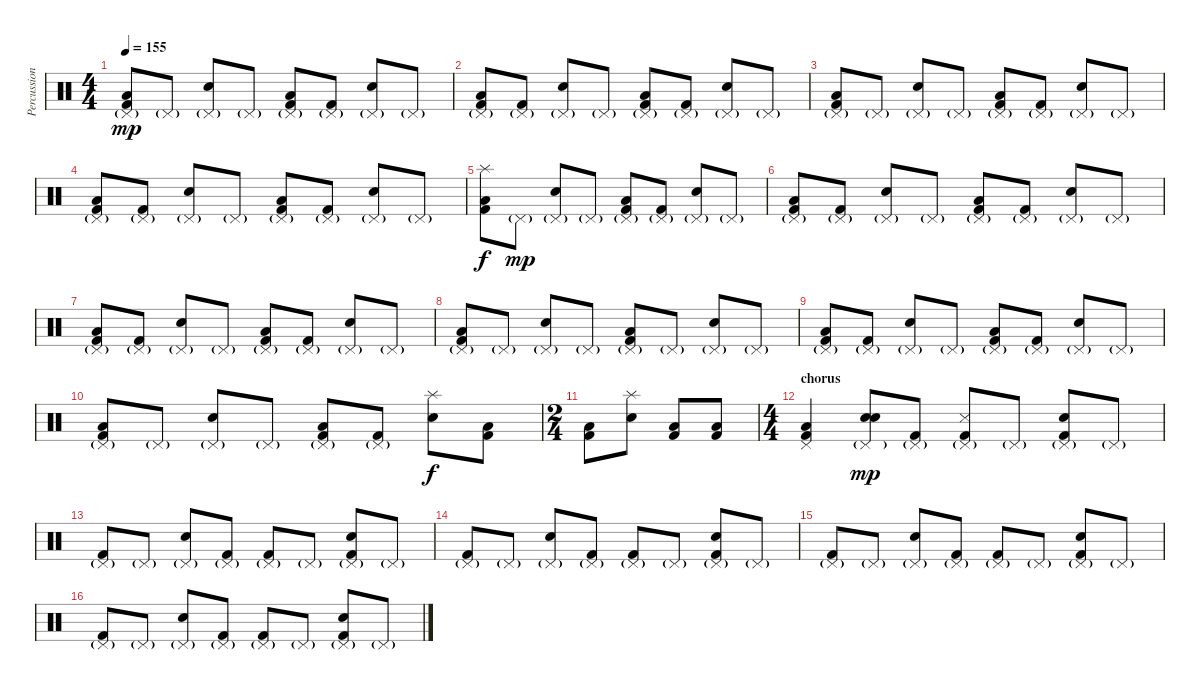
\track ("Percussions" "Percussion") {instrument percussion}
\staff {score}
\articulation defaults
\ts (4 4)
\tempo 155
\clef neutral
\ks c
("Pedal Hi-Hat (hit)"{g} "Low Floor Tom (hit)" "Kick (hit) 2").8{dy mp} "Pedal Hi-Hat (hit)"{g}.8 ("Pedal Hi-Hat (hit)"{g} "Snare (hit) 2").8 "Pedal Hi-Hat (hit)"{g}.8 ("Pedal Hi-Hat (hit)"{g} "Low Floor Tom (hit)" "Kick (hit) 2").8 ("Pedal Hi-Hat (hit)"{g} "Kick (hit) 2").8 ("Pedal Hi-Hat (hit)"{g} "Snare (hit) 2").8 "Pedal Hi-Hat (hit)"{g}.8 |
("Pedal Hi-Hat (hit)"{g} "Low Floor Tom (hit)" "Kick (hit) 2").8 ("Pedal Hi-Hat (hit)"{g} "Kick (hit) 2").8 ("Pedal Hi-Hat (hit)"{g} "Snare (hit) 2").8 "Pedal Hi-Hat (hit)"{g}.8 ("Pedal Hi-Hat (hit)"{g} "Low Floor Tom (hit)" "Kick (hit) 2").8 ("Pedal Hi-Hat (hit)"{g} "Kick (hit) 2").8 ("Pedal Hi-Hat (hit)"{g} "Snare (hit) 2").8 "Pedal Hi-Hat (hit)"{g}.8 |
("Pedal Hi-Hat (hit)"{g} "Low Floor Tom (hit)" "Kick (hit) 2").8 "Pedal Hi-Hat (hit)"{g}.8 ("Pedal Hi-Hat (hit)"{g} "Snare (hit) 2").8 "Pedal Hi-Hat (hit)"{g}.8 ("Pedal Hi-Hat (hit)"{g} "Low Floor Tom (hit)" "Kick (hit) 2").8 ("Pedal Hi-Hat (hit)"{g} "Kick (hit) 2").8 ("Pedal Hi-Hat (hit)"{g} "Snare (hit) 2").8 "Pedal Hi-Hat (hit)"{g}.8 |
("Pedal Hi-Hat (hit)"{g} "Low Floor Tom (hit)" "Kick (hit) 2").8 ("Pedal Hi-Hat (hit)"{g} "Kick (hit) 2").8 ("Pedal Hi-Hat (hit)"{g} "Snare (hit) 2").8 "Pedal Hi-Hat (hit)"{g}.8 ("Pedal Hi-Hat (hit)"{g} "Low Floor Tom (hit)" "Kick (hit) 2").8 ("Pedal Hi-Hat (hit)"{g} "Kick (hit) 2").8 ("Pedal Hi-Hat (hit)"{g} "Snare (hit) 2").8 "Pedal Hi-Hat (hit)"{g}.8 |
("Splash (hit)" "Low Floor Tom (hit)" "Kick (hit) 2").8{dy f} "Pedal Hi-Hat (hit)"{g}.8{dy mp} ("Pedal Hi-Hat (hit)"{g} "Snare (hit) 2").8 "Pedal Hi-Hat (hit)"{g}.8 ("Pedal Hi-Hat (hit)"{g} "Low Floor Tom (hit)" "Kick (hit) 2").8 ("Pedal Hi-Hat (hit)"{g} "Kick (hit) 2").8 ("Pedal Hi-Hat (hit)"{g} "Snare (hit) 2").8 "Pedal Hi-Hat (hit)"{g}.8 |
("Pedal Hi-Hat (hit)"{g} "Low Floor Tom (hit)" "Kick (hit) 2").8 ("Pedal Hi-Hat (hit)"{g} "Kick (hit) 2").8 ("Pedal Hi-Hat (hit)"{g} "Snare (hit) 2").8 "Pedal Hi-Hat (hit)"{g}.8 ("Pedal Hi-Hat (hit)"{g} "Low Floor Tom (hit)" "Kick (hit) 2").8 ("Pedal Hi-Hat (hit)"{g} "Kick (hit) 2").8 ("Pedal Hi-Hat (hit)"{g} "Snare (hit) 2").8 "Pedal Hi-Hat (hit)"{g}.8 |
("Pedal Hi-Hat (hit)"{g} "Low Floor Tom (hit)" "Kick (hit) 2").8 ("Pedal Hi-Hat (hit)"{g} "Kick (hit) 2").8 ("Pedal Hi-Hat (hit)"{g} "Snare (hit) 2").8 "Pedal Hi-Hat (hit)"{g}.8 ("Pedal Hi-Hat (hit)"{g} "Low Floor Tom (hit)" "Kick (hit) 2").8 ("Pedal Hi-Hat (hit)"{g} "Kick (hit) 2").8 ("Pedal Hi-Hat (hit)"{g} "Snare (hit) 2").8 "Pedal Hi-Hat (hit)"{g}.8 |
("Pedal Hi-Hat (hit)"{g} "Low Floor Tom (hit)" "Kick (hit) 2").8 "Pedal Hi-Hat (hit)"{g}.8 ("Pedal Hi-Hat (hit)"{g} "Snare (hit) 2").8 "Pedal Hi-Hat (hit)"{g}.8 ("Pedal Hi-Hat (hit)"{g} "Low Floor Tom (hit)" "Kick (hit) 2").8 "Pedal Hi-Hat (hit)"{g}.8 ("Pedal Hi-Hat (hit)"{g} "Snare (hit) 2").8 "Pedal Hi-Hat (hit)"{g}.8 |
("Pedal Hi-Hat (hit)"{g} "Low Floor Tom (hit)" "Kick (hit) 2").8 ("Pedal Hi-Hat (hit)"{g} "Kick (hit) 2").8 ("Pedal Hi-Hat (hit)"{g} "Snare (hit) 2").8 "Pedal Hi-Hat (hit)"{g}.8 ("Pedal Hi-Hat (hit)"{g} "Low Floor Tom (hit)" "Kick (hit) 2").8 ("Pedal Hi-Hat (hit)"{g} "Kick (hit) 2").8 ("Pedal Hi-Hat (hit)"{g} "Snare (hit) 2").8 "Pedal Hi-Hat (hit)"{g}.8 |
("Pedal Hi-Hat (hit)"{g} "Low Floor Tom (hit)" "Kick (hit) 2").8 "Pedal Hi-Hat (hit)"{g}.8 ("Pedal Hi-Hat (hit)"{g} "Snare (hit) 2").8 "Pedal Hi-Hat (hit)"{g}.8 ("Pedal Hi-Hat (hit)"{g} "Low Floor Tom (hit)" "Kick (hit) 2").8 ("Pedal Hi-Hat (hit)"{g} "Kick (hit) 2").8 ("Splash (hit)" "Snare (hit) 2").8{dy f} ("Low Floor Tom (hit)" "Kick (hit) 2").8 |
\ts (2 4)
("Low Floor Tom (hit)" "Kick (hit) 2").8 ("Splash (hit)" "Snare (hit) 2").8 ("Low Floor Tom (hit)" "Kick (hit) 2").8 ("Low Floor Tom (hit)" "Kick (hit) 2").8 |
\ts (4 4)
\section ("" "chorus")
("Pedal Hi-Hat (hit)" "Low Floor Tom (hit)" "Kick (hit) 2").4 ("Pedal Hi-Hat (hit)"{g} "Snare (hit) 2" "Snare (hit) 2").8{dy mp} ("Pedal Hi-Hat (hit)"{g} "Kick (hit) 2").8 ("Pedal Hi-Hat (hit)"{g} "Metronome (hit)" "Kick (hit) 2").8 "Pedal Hi-Hat (hit)"{g}.8 ("Pedal Hi-Hat (hit)"{g} "Snare (hit) 2" "Kick (hit) 2").8 "Pedal Hi-Hat (hit)"{g}.8 |
("Pedal Hi-Hat (hit)"{g} "Kick (hit) 2").8 "Pedal Hi-Hat (hit)"{g}.8 ("Pedal Hi-Hat (hit)"{g} "Snare (hit) 2").8 ("Pedal Hi-Hat (hit)"{g} "Kick (hit) 2").8 ("Pedal Hi-Hat (hit)"{g} "Kick (hit) 2").8 "Pedal Hi-Hat (hit)"{g}.8 ("Pedal Hi-Hat (hit)"{g} "Snare (hit) 2" "Kick (hit) 2").8 "Pedal Hi-Hat (hit)"{g}.8 |
("Pedal Hi-Hat (hit)"{g} "Kick (hit) 2").8 "Pedal Hi-Hat (hit)"{g}.8 ("Pedal Hi-Hat (hit)"{g} "Snare (hit) 2").8 ("Pedal Hi-Hat (hit)"{g} "Kick (hit) 2").8 ("Pedal Hi-Hat (hit)"{g} "Kick (hit) 2").8 "Pedal Hi-Hat (hit)"{g}.8 ("Pedal Hi-Hat (hit)"{g} "Snare (hit) 2" "Kick (hit) 2").8 "Pedal Hi-Hat (hit)"{g}.8 |
("Pedal Hi-Hat (hit)"{g} "Kick (hit) 2").8 "Pedal Hi-Hat (hit)"{g}.8 ("Pedal Hi-Hat (hit)"{g} "Snare (hit) 2").8 ("Pedal Hi-Hat (hit)"{g} "Kick (hit) 2").8 ("Pedal Hi-Hat (hit)"{g} "Kick (hit) 2").8 "Pedal Hi-Hat (hit)"{g}.8 ("Pedal Hi-Hat (hit)"{g} "Snare (hit) 2" "Kick (hit) 2").8 "Pedal Hi-Hat (hit)"{g}.8 |
("Pedal Hi-Hat (hit)"{g} "Kick (hit) 2").8 "Pedal Hi-Hat (hit)"{g}.8 ("Pedal Hi-Hat (hit)"{g} "Snare (hit) 2").8 ("Pedal Hi-Hat (hit)"{g} "Kick (hit) 2").8 ("Pedal Hi-Hat (hit)"{g} "Kick (hit) 2").8 "Pedal Hi-Hat (hit)"{g}.8 ("Pedal Hi-Hat (hit)"{g} "Snare (hit) 2" "Kick (hit) 2").8 "Pedal Hi-Hat (hit)"{g}.8
